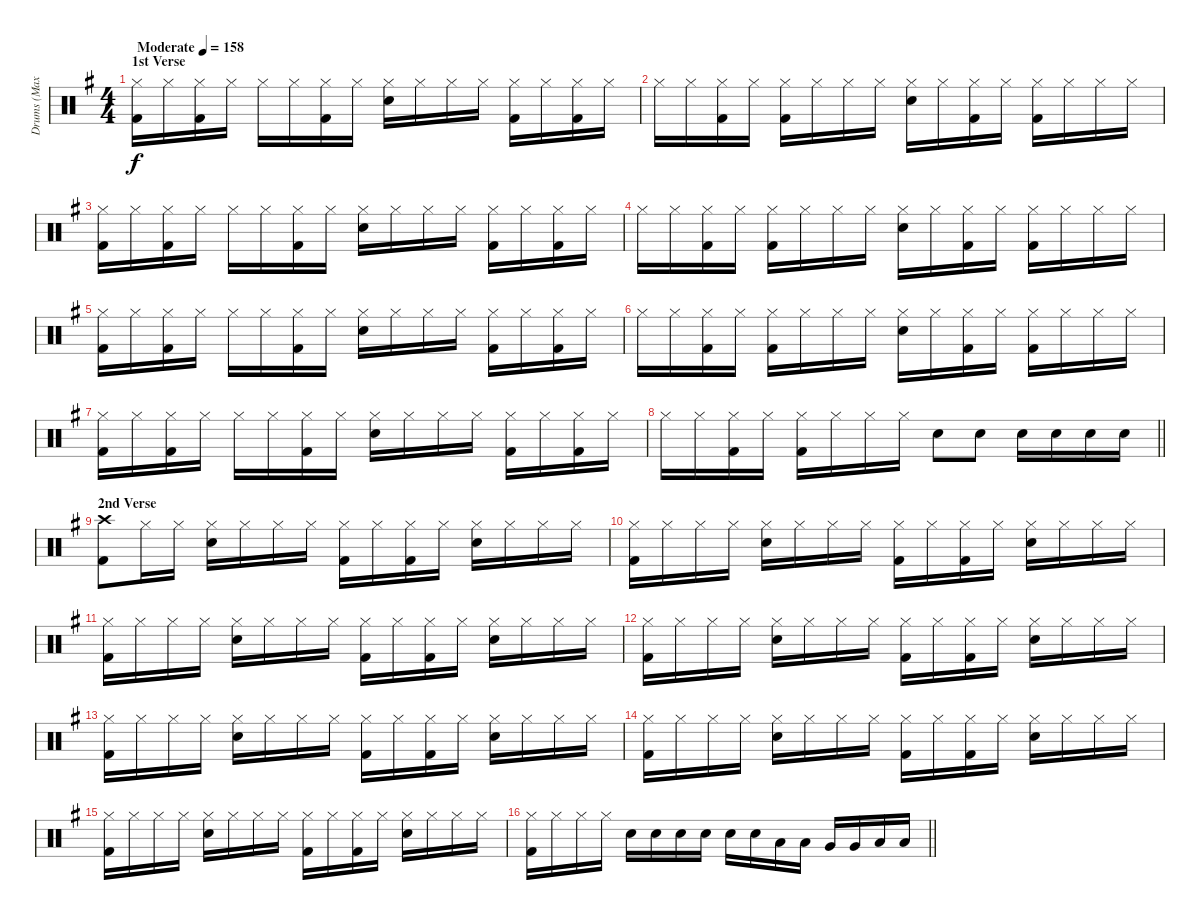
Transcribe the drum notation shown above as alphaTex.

\track ("Drums (Max)" "Drums (Max") {instrument percussion}
\staff {score}
\articulation defaults
\ts (4 4)
\section ("" "1st Verse")
\tempo (158 "Moderate")
\clef neutral
\ks g
("Hi-Hat (closed)" "Kick (hit) 2").16{dy f} "Hi-Hat (closed)".16 ("Hi-Hat (closed)" "Kick (hit) 2").16 "Hi-Hat (closed)".16 "Hi-Hat (closed)".16 "Hi-Hat (closed)".16 ("Hi-Hat (closed)" "Kick (hit) 2").16 "Hi-Hat (closed)".16 ("Hi-Hat (closed)" "Snare (hit) 2").16 "Hi-Hat (closed)".16 "Hi-Hat (closed)".16 "Hi-Hat (closed)".16 ("Hi-Hat (closed)" "Kick (hit) 2").16 "Hi-Hat (closed)".16 ("Hi-Hat (closed)" "Kick (hit) 2").16 "Hi-Hat (closed)".16 |
"Hi-Hat (closed)".16 "Hi-Hat (closed)".16 ("Hi-Hat (closed)" "Kick (hit) 2").16 "Hi-Hat (closed)".16 ("Hi-Hat (closed)" "Kick (hit) 2").16 "Hi-Hat (closed)".16 "Hi-Hat (closed)".16 "Hi-Hat (closed)".16 ("Hi-Hat (closed)" "Snare (hit) 2").16 "Hi-Hat (closed)".16 ("Hi-Hat (closed)" "Kick (hit) 2").16 "Hi-Hat (closed)".16 ("Hi-Hat (closed)" "Kick (hit) 2").16 "Hi-Hat (closed)".16 "Hi-Hat (closed)".16 "Hi-Hat (closed)".16 |
("Hi-Hat (closed)" "Kick (hit) 2").16 "Hi-Hat (closed)".16 ("Hi-Hat (closed)" "Kick (hit) 2").16 "Hi-Hat (closed)".16 "Hi-Hat (closed)".16 "Hi-Hat (closed)".16 ("Hi-Hat (closed)" "Kick (hit) 2").16 "Hi-Hat (closed)".16 ("Hi-Hat (closed)" "Snare (hit) 2").16 "Hi-Hat (closed)".16 "Hi-Hat (closed)".16 "Hi-Hat (closed)".16 ("Hi-Hat (closed)" "Kick (hit) 2").16 "Hi-Hat (closed)".16 ("Hi-Hat (closed)" "Kick (hit) 2").16 "Hi-Hat (closed)".16 |
"Hi-Hat (closed)".16 "Hi-Hat (closed)".16 ("Hi-Hat (closed)" "Kick (hit) 2").16 "Hi-Hat (closed)".16 ("Hi-Hat (closed)" "Kick (hit) 2").16 "Hi-Hat (closed)".16 "Hi-Hat (closed)".16 "Hi-Hat (closed)".16 ("Hi-Hat (closed)" "Snare (hit) 2").16 "Hi-Hat (closed)".16 ("Hi-Hat (closed)" "Kick (hit) 2").16 "Hi-Hat (closed)".16 ("Hi-Hat (closed)" "Kick (hit) 2").16 "Hi-Hat (closed)".16 "Hi-Hat (closed)".16 "Hi-Hat (closed)".16 |
("Hi-Hat (closed)" "Kick (hit) 2").16 "Hi-Hat (closed)".16 ("Hi-Hat (closed)" "Kick (hit) 2").16 "Hi-Hat (closed)".16 "Hi-Hat (closed)".16 "Hi-Hat (closed)".16 ("Hi-Hat (closed)" "Kick (hit) 2").16 "Hi-Hat (closed)".16 ("Hi-Hat (closed)" "Snare (hit) 2").16 "Hi-Hat (closed)".16 "Hi-Hat (closed)".16 "Hi-Hat (closed)".16 ("Hi-Hat (closed)" "Kick (hit) 2").16 "Hi-Hat (closed)".16 ("Hi-Hat (closed)" "Kick (hit) 2").16 "Hi-Hat (closed)".16 |
"Hi-Hat (closed)".16 "Hi-Hat (closed)".16 ("Hi-Hat (closed)" "Kick (hit) 2").16 "Hi-Hat (closed)".16 ("Hi-Hat (closed)" "Kick (hit) 2").16 "Hi-Hat (closed)".16 "Hi-Hat (closed)".16 "Hi-Hat (closed)".16 ("Hi-Hat (closed)" "Snare (hit) 2").16 "Hi-Hat (closed)".16 ("Hi-Hat (closed)" "Kick (hit) 2").16 "Hi-Hat (closed)".16 ("Hi-Hat (closed)" "Kick (hit) 2").16 "Hi-Hat (closed)".16 "Hi-Hat (closed)".16 "Hi-Hat (closed)".16 |
("Hi-Hat (closed)" "Kick (hit) 2").16 "Hi-Hat (closed)".16 ("Hi-Hat (closed)" "Kick (hit) 2").16 "Hi-Hat (closed)".16 "Hi-Hat (closed)".16 "Hi-Hat (closed)".16 ("Hi-Hat (closed)" "Kick (hit) 2").16 "Hi-Hat (closed)".16 ("Hi-Hat (closed)" "Snare (hit) 2").16 "Hi-Hat (closed)".16 "Hi-Hat (closed)".16 "Hi-Hat (closed)".16 ("Hi-Hat (closed)" "Kick (hit) 2").16 "Hi-Hat (closed)".16 ("Hi-Hat (closed)" "Kick (hit) 2").16 "Hi-Hat (closed)".16 |
\barLineRight lightlight "Hi-Hat (closed)".16 "Hi-Hat (closed)".16
("Hi-Hat (closed)" "Kick (hit) 2").16 "Hi-Hat (closed)".16 ("Hi-Hat (closed)" "Kick (hit) 2").16 "Hi-Hat (closed)".16 "Hi-Hat (closed)".16 "Hi-Hat (closed)".16 "Snare (hit) 2".8 "Snare (hit) 2".8 "Snare (hit) 2".16 "Snare (hit) 2".16 "Snare (hit) 2".16 "Snare (hit) 2".16 |
\section ("" "2nd Verse")
("Crash high (hit)" "Kick (hit) 2").8 "Hi-Hat (closed)".16 "Hi-Hat (closed)".16 ("Hi-Hat (closed)" "Snare (hit) 2").16 "Hi-Hat (closed)".16 "Hi-Hat (closed)".16 "Hi-Hat (closed)".16 ("Hi-Hat (closed)" "Kick (hit) 2").16 "Hi-Hat (closed)".16 ("Hi-Hat (closed)" "Kick (hit) 2").16 "Hi-Hat (closed)".16 ("Hi-Hat (closed)" "Snare (hit) 2").16 "Hi-Hat (closed)".16 "Hi-Hat (closed)".16 "Hi-Hat (closed)".16 |
("Hi-Hat (closed)" "Kick (hit) 2").16 "Hi-Hat (closed)".16 "Hi-Hat (closed)".16 "Hi-Hat (closed)".16 ("Hi-Hat (closed)" "Snare (hit) 2").16 "Hi-Hat (closed)".16 "Hi-Hat (closed)".16 "Hi-Hat (closed)".16 ("Hi-Hat (closed)" "Kick (hit) 2").16 "Hi-Hat (closed)".16 ("Hi-Hat (closed)" "Kick (hit) 2").16 "Hi-Hat (closed)".16 ("Hi-Hat (closed)" "Snare (hit) 2").16 "Hi-Hat (closed)".16 "Hi-Hat (closed)".16 "Hi-Hat (closed)".16 |
("Hi-Hat (closed)" "Kick (hit) 2").16 "Hi-Hat (closed)".16 "Hi-Hat (closed)".16 "Hi-Hat (closed)".16 ("Hi-Hat (closed)" "Snare (hit) 2").16 "Hi-Hat (closed)".16 "Hi-Hat (closed)".16 "Hi-Hat (closed)".16 ("Hi-Hat (closed)" "Kick (hit) 2").16 "Hi-Hat (closed)".16 ("Hi-Hat (closed)" "Kick (hit) 2").16 "Hi-Hat (closed)".16 ("Hi-Hat (closed)" "Snare (hit) 2").16 "Hi-Hat (closed)".16 "Hi-Hat (closed)".16 "Hi-Hat (closed)".16 |
("Hi-Hat (closed)" "Kick (hit) 2").16 "Hi-Hat (closed)".16 "Hi-Hat (closed)".16 "Hi-Hat (closed)".16 ("Hi-Hat (closed)" "Snare (hit) 2").16 "Hi-Hat (closed)".16 "Hi-Hat (closed)".16 "Hi-Hat (closed)".16 ("Hi-Hat (closed)" "Kick (hit) 2").16 "Hi-Hat (closed)".16 ("Hi-Hat (closed)" "Kick (hit) 2").16 "Hi-Hat (closed)".16 ("Hi-Hat (closed)" "Snare (hit) 2").16 "Hi-Hat (closed)".16 "Hi-Hat (closed)".16 "Hi-Hat (closed)".16 |
("Hi-Hat (closed)" "Kick (hit) 2").16 "Hi-Hat (closed)".16 "Hi-Hat (closed)".16 "Hi-Hat (closed)".16 ("Hi-Hat (closed)" "Snare (hit) 2").16 "Hi-Hat (closed)".16 "Hi-Hat (closed)".16 "Hi-Hat (closed)".16 ("Hi-Hat (closed)" "Kick (hit) 2").16 "Hi-Hat (closed)".16 ("Hi-Hat (closed)" "Kick (hit) 2").16 "Hi-Hat (closed)".16 ("Hi-Hat (closed)" "Snare (hit) 2").16 "Hi-Hat (closed)".16 "Hi-Hat (closed)".16 "Hi-Hat (closed)".16 |
("Hi-Hat (closed)" "Kick (hit) 2").16 "Hi-Hat (closed)".16 "Hi-Hat (closed)".16 "Hi-Hat (closed)".16 ("Hi-Hat (closed)" "Snare (hit) 2").16 "Hi-Hat (closed)".16 "Hi-Hat (closed)".16 "Hi-Hat (closed)".16 ("Hi-Hat (closed)" "Kick (hit) 2").16 "Hi-Hat (closed)".16 ("Hi-Hat (closed)" "Kick (hit) 2").16 "Hi-Hat (closed)".16 ("Hi-Hat (closed)" "Snare (hit) 2").16 "Hi-Hat (closed)".16 "Hi-Hat (closed)".16 "Hi-Hat (closed)".16 |
("Hi-Hat (closed)" "Kick (hit) 2").16 "Hi-Hat (closed)".16 "Hi-Hat (closed)".16 "Hi-Hat (closed)".16 ("Hi-Hat (closed)" "Snare (hit) 2").16 "Hi-Hat (closed)".16 "Hi-Hat (closed)".16 "Hi-Hat (closed)".16 ("Hi-Hat (closed)" "Kick (hit) 2").16 "Hi-Hat (closed)".16 ("Hi-Hat (closed)" "Kick (hit) 2").16 "Hi-Hat (closed)".16 ("Hi-Hat (closed)" "Snare (hit) 2").16 "Hi-Hat (closed)".16 "Hi-Hat (closed)".16 "Hi-Hat (closed)".16 |
\barLineRight lightlight
("Hi-Hat (closed)" "Kick (hit) 2").16 "Hi-Hat (closed)".16 "Hi-Hat (closed)".16 "Hi-Hat (closed)".16 "Snare (hit) 2".16 "Snare (hit) 2".16 "Snare (hit) 2".16 "Snare (hit) 2".16 "Snare (hit) 2".16 "Snare (hit) 2".16 "Low Tom (hit)".16 "Low Tom (hit)".16 "Very Low Tom (hit)".16 "Very Low Tom (hit)".16 "Low Floor Tom (hit)".16 "Low Floor Tom (hit)".16
